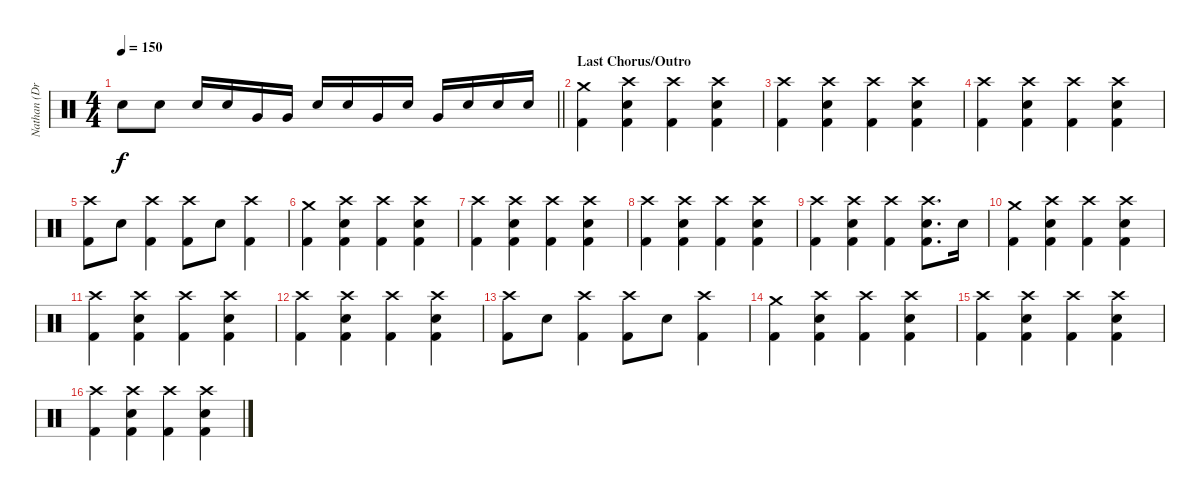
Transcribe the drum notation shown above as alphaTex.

\track ("Nathan (Drums)" "Nathan (Dr") {instrument percussion}
\staff {score}
\articulation defaults
\ts (4 4)
\tempo 150
\clef neutral
\barLineRight lightlight
\ks c "Electric Snare (hit)".8{dy f} "Electric Snare (hit)".8 "Electric Snare (hit)".16 "Electric Snare (hit)".16 "Very Low Tom (hit)".16 "Very Low Tom (hit)".16 "Electric Snare (hit)".16 "Electric Snare (hit)".16 "Very Low Tom (hit)".16 "Electric Snare (hit)".16 "Very Low Tom (hit)".16 "Electric Snare (hit)".16 "Electric Snare (hit)".16 "Electric Snare (hit)".16
|
\section ("" "Last Chorus/Outro")
("Crash medium (hit)" "Kick (hit) 2").4 ("Crash high (hit)" "Electric Snare (hit)" "Kick (hit) 2").4 ("Crash high (hit)" "Kick (hit) 2").4 ("Crash high (hit)" "Electric Snare (hit)" "Kick (hit) 2").4 |
("Crash high (hit)" "Kick (hit) 2").4 ("Crash high (hit)" "Electric Snare (hit)" "Kick (hit) 2").4 ("Crash high (hit)" "Kick (hit) 2").4 ("Crash high (hit)" "Electric Snare (hit)" "Kick (hit) 2").4 |
("Crash high (hit)" "Kick (hit) 2").4 ("Crash high (hit)" "Electric Snare (hit)" "Kick (hit) 2").4 ("Crash high (hit)" "Kick (hit) 2").4 ("Crash high (hit)" "Electric Snare (hit)" "Kick (hit) 2").4 |
("Crash high (hit)" "Kick (hit) 2").8 "Electric Snare (hit)".8 ("Crash high (hit)" "Kick (hit) 2").4 ("Crash high (hit)" "Kick (hit) 2").8 "Electric Snare (hit)".8 ("Crash high (hit)" "Kick (hit) 2").4 |
("Crash medium (hit)" "Kick (hit) 2").4 ("Crash high (hit)" "Electric Snare (hit)" "Kick (hit) 2").4 ("Crash high (hit)" "Kick (hit) 2").4 ("Crash high (hit)" "Electric Snare (hit)" "Kick (hit) 2").4 |
("Crash high (hit)" "Kick (hit) 2").4 ("Crash high (hit)" "Electric Snare (hit)" "Kick (hit) 2").4 ("Crash high (hit)" "Kick (hit) 2").4 ("Crash high (hit)" "Electric Snare (hit)" "Kick (hit) 2").4 |
("Crash high (hit)" "Kick (hit) 2").4 ("Crash high (hit)" "Electric Snare (hit)" "Kick (hit) 2").4 ("Crash high (hit)" "Kick (hit) 2").4 ("Crash high (hit)" "Electric Snare (hit)" "Kick (hit) 2").4 |
("Crash high (hit)" "Kick (hit) 2").4 ("Crash high (hit)" "Electric Snare (hit)" "Kick (hit) 2").4 ("Crash high (hit)" "Kick (hit) 2").4 ("Crash high (hit)" "Electric Snare (hit)" "Kick (hit) 2").8{d} "Electric Snare (hit)".16 |
("Crash medium (hit)" "Kick (hit) 2").4 ("Crash high (hit)" "Electric Snare (hit)" "Kick (hit) 2").4 ("Crash high (hit)" "Kick (hit) 2").4 ("Crash high (hit)" "Electric Snare (hit)" "Kick (hit) 2").4 |
("Crash high (hit)" "Kick (hit) 2").4 ("Crash high (hit)" "Electric Snare (hit)" "Kick (hit) 2").4 ("Crash high (hit)" "Kick (hit) 2").4 ("Crash high (hit)" "Electric Snare (hit)" "Kick (hit) 2").4 |
("Crash high (hit)" "Kick (hit) 2").4 ("Crash high (hit)" "Electric Snare (hit)" "Kick (hit) 2").4 ("Crash high (hit)" "Kick (hit) 2").4 ("Crash high (hit)" "Electric Snare (hit)" "Kick (hit) 2").4 |
("Crash high (hit)" "Kick (hit) 2").8 "Electric Snare (hit)".8 ("Crash high (hit)" "Kick (hit) 2").4 ("Crash high (hit)" "Kick (hit) 2").8 "Electric Snare (hit)".8 ("Crash high (hit)" "Kick (hit) 2").4 |
("Crash medium (hit)" "Kick (hit) 2").4 ("Crash high (hit)" "Electric Snare (hit)" "Kick (hit) 2").4 ("Crash high (hit)" "Kick (hit) 2").4 ("Crash high (hit)" "Electric Snare (hit)" "Kick (hit) 2").4 |
("Crash high (hit)" "Kick (hit) 2").4 ("Crash high (hit)" "Electric Snare (hit)" "Kick (hit) 2").4 ("Crash high (hit)" "Kick (hit) 2").4 ("Crash high (hit)" "Electric Snare (hit)" "Kick (hit) 2").4 |
("Crash high (hit)" "Kick (hit) 2").4 ("Crash high (hit)" "Electric Snare (hit)" "Kick (hit) 2").4 ("Crash high (hit)" "Kick (hit) 2").4 ("Crash high (hit)" "Electric Snare (hit)" "Kick (hit) 2").4
